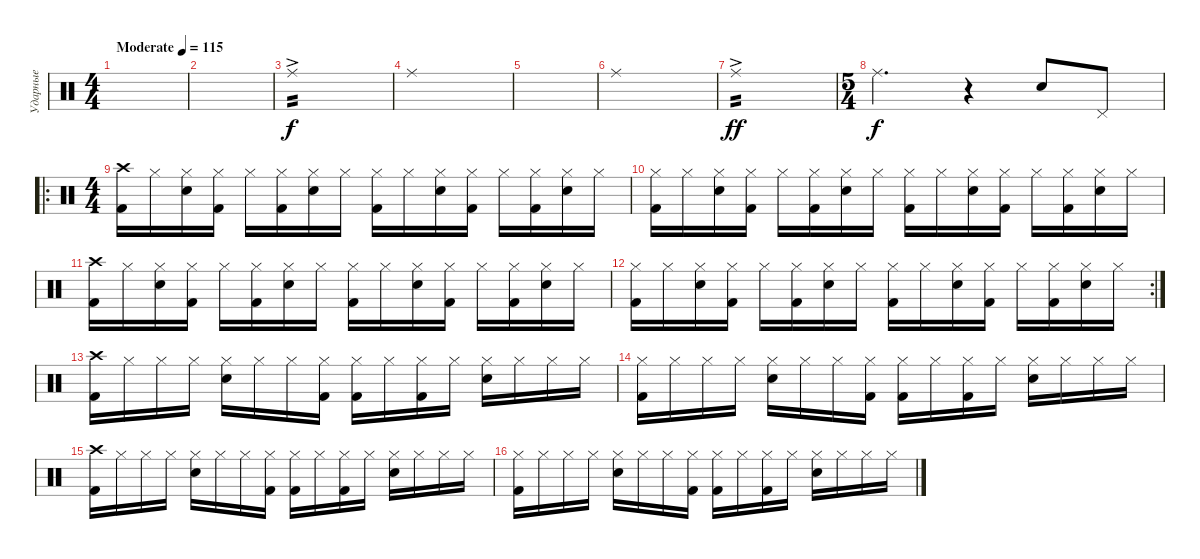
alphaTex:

\track ("Ударные" "Ударные") {instrument percussion}
\staff {score}
\articulation defaults
\ts (4 4)
\tempo (115 "Moderate")
\clef neutral
\ks c
|
|
"Ride (middle)"{ac}.1{tp 2} |
"Ride (middle)".1{dy f} |
|
"Ride (middle)".1 |
"Ride (middle)"{ac}.1{tp 2 dy ff} |
\ts (5 4)
"Ride (middle)".2{d dy f} r.4 "Electric Snare (hit)".8 "Pedal Hi-Hat (hit)".8 |
\ro
\ts (4 4)
("Kick (hit) 2" "Crash high (hit)").16 "Hi-Hat (closed)".16 ("Electric Snare (hit)" "Hi-Hat (closed)").16 ("Kick (hit) 2" "Hi-Hat (closed)").16 "Hi-Hat (closed)".16 ("Kick (hit) 2" "Hi-Hat (closed)").16 ("Electric Snare (hit)" "Hi-Hat (closed)").16 "Hi-Hat (closed)".16 ("Kick (hit) 2" "Hi-Hat (closed)").16 "Hi-Hat (closed)".16 ("Electric Snare (hit)" "Hi-Hat (closed)").16 ("Kick (hit) 2" "Hi-Hat (closed)").16 "Hi-Hat (closed)".16 ("Kick (hit) 2" "Hi-Hat (closed)").16 ("Electric Snare (hit)" "Hi-Hat (closed)").16 "Hi-Hat (closed)".16 |
("Kick (hit) 2" "Hi-Hat (closed)").16 "Hi-Hat (closed)".16 ("Electric Snare (hit)" "Hi-Hat (closed)").16 ("Kick (hit) 2" "Hi-Hat (closed)").16 "Hi-Hat (closed)".16 ("Kick (hit) 2" "Hi-Hat (closed)").16 ("Electric Snare (hit)" "Hi-Hat (closed)").16 "Hi-Hat (closed)".16 ("Kick (hit) 2" "Hi-Hat (closed)").16 "Hi-Hat (closed)".16 ("Electric Snare (hit)" "Hi-Hat (closed)").16 ("Kick (hit) 2" "Hi-Hat (closed)").16 "Hi-Hat (closed)".16 ("Kick (hit) 2" "Hi-Hat (closed)").16 ("Electric Snare (hit)" "Hi-Hat (closed)").16 "Hi-Hat (closed)".16 |
("Kick (hit) 2" "Crash high (hit)").16 "Hi-Hat (closed)".16 ("Electric Snare (hit)" "Hi-Hat (closed)").16 ("Kick (hit) 2" "Hi-Hat (closed)").16 "Hi-Hat (closed)".16 ("Kick (hit) 2" "Hi-Hat (closed)").16 ("Electric Snare (hit)" "Hi-Hat (closed)").16 "Hi-Hat (closed)".16 ("Kick (hit) 2" "Hi-Hat (closed)").16 "Hi-Hat (closed)".16 ("Electric Snare (hit)" "Hi-Hat (closed)").16 ("Kick (hit) 2" "Hi-Hat (closed)").16 "Hi-Hat (closed)".16 ("Kick (hit) 2" "Hi-Hat (closed)").16 ("Electric Snare (hit)" "Hi-Hat (closed)").16 "Hi-Hat (closed)".16 |
\rc 2
("Kick (hit) 2" "Hi-Hat (closed)").16 "Hi-Hat (closed)".16 ("Electric Snare (hit)" "Hi-Hat (closed)").16 ("Kick (hit) 2" "Hi-Hat (closed)").16 "Hi-Hat (closed)".16 ("Kick (hit) 2" "Hi-Hat (closed)").16 ("Electric Snare (hit)" "Hi-Hat (closed)").16 "Hi-Hat (closed)".16 ("Kick (hit) 2" "Hi-Hat (closed)").16 "Hi-Hat (closed)".16 ("Electric Snare (hit)" "Hi-Hat (closed)").16 ("Kick (hit) 2" "Hi-Hat (closed)").16 "Hi-Hat (closed)".16 ("Kick (hit) 2" "Hi-Hat (closed)").16 ("Electric Snare (hit)" "Hi-Hat (closed)").16 "Hi-Hat (closed)".16 |
("Kick (hit) 2" "Crash high (hit)").16 "Hi-Hat (closed)".16 "Hi-Hat (closed)".16 "Hi-Hat (closed)".16 ("Electric Snare (hit)" "Hi-Hat (closed)").16 "Hi-Hat (closed)".16 "Hi-Hat (closed)".16 ("Kick (hit) 2" "Hi-Hat (closed)").16 ("Kick (hit) 2" "Hi-Hat (closed)").16 "Hi-Hat (closed)".16 ("Kick (hit) 2" "Hi-Hat (closed)").16 "Hi-Hat (closed)".16 ("Electric Snare (hit)" "Hi-Hat (closed)").16 "Hi-Hat (closed)".16 "Hi-Hat (closed)".16 "Hi-Hat (closed)".16 |
("Kick (hit) 2" "Hi-Hat (closed)").16 "Hi-Hat (closed)".16 "Hi-Hat (closed)".16 "Hi-Hat (closed)".16 ("Electric Snare (hit)" "Hi-Hat (closed)").16 "Hi-Hat (closed)".16 "Hi-Hat (closed)".16 ("Kick (hit) 2" "Hi-Hat (closed)").16 ("Kick (hit) 2" "Hi-Hat (closed)").16 "Hi-Hat (closed)".16 ("Kick (hit) 2" "Hi-Hat (closed)").16 "Hi-Hat (closed)".16 ("Electric Snare (hit)" "Hi-Hat (closed)").16 "Hi-Hat (closed)".16 "Hi-Hat (closed)".16 "Hi-Hat (closed)".16 |
("Kick (hit) 2" "Crash high (hit)").16 "Hi-Hat (closed)".16 "Hi-Hat (closed)".16 "Hi-Hat (closed)".16 ("Electric Snare (hit)" "Hi-Hat (closed)").16 "Hi-Hat (closed)".16 "Hi-Hat (closed)".16 ("Kick (hit) 2" "Hi-Hat (closed)").16 ("Kick (hit) 2" "Hi-Hat (closed)").16 "Hi-Hat (closed)".16 ("Kick (hit) 2" "Hi-Hat (closed)").16 "Hi-Hat (closed)".16 ("Electric Snare (hit)" "Hi-Hat (closed)").16 "Hi-Hat (closed)".16 "Hi-Hat (closed)".16 "Hi-Hat (closed)".16 |
("Kick (hit) 2" "Hi-Hat (closed)").16 "Hi-Hat (closed)".16 "Hi-Hat (closed)".16 "Hi-Hat (closed)".16 ("Electric Snare (hit)" "Hi-Hat (closed)").16 "Hi-Hat (closed)".16 "Hi-Hat (closed)".16 ("Kick (hit) 2" "Hi-Hat (closed)").16 ("Kick (hit) 2" "Hi-Hat (closed)").16 "Hi-Hat (closed)".16 ("Kick (hit) 2" "Hi-Hat (closed)").16 "Hi-Hat (closed)".16 ("Electric Snare (hit)" "Hi-Hat (closed)").16 "Hi-Hat (closed)".16 "Hi-Hat (closed)".16 "Hi-Hat (closed)".16
